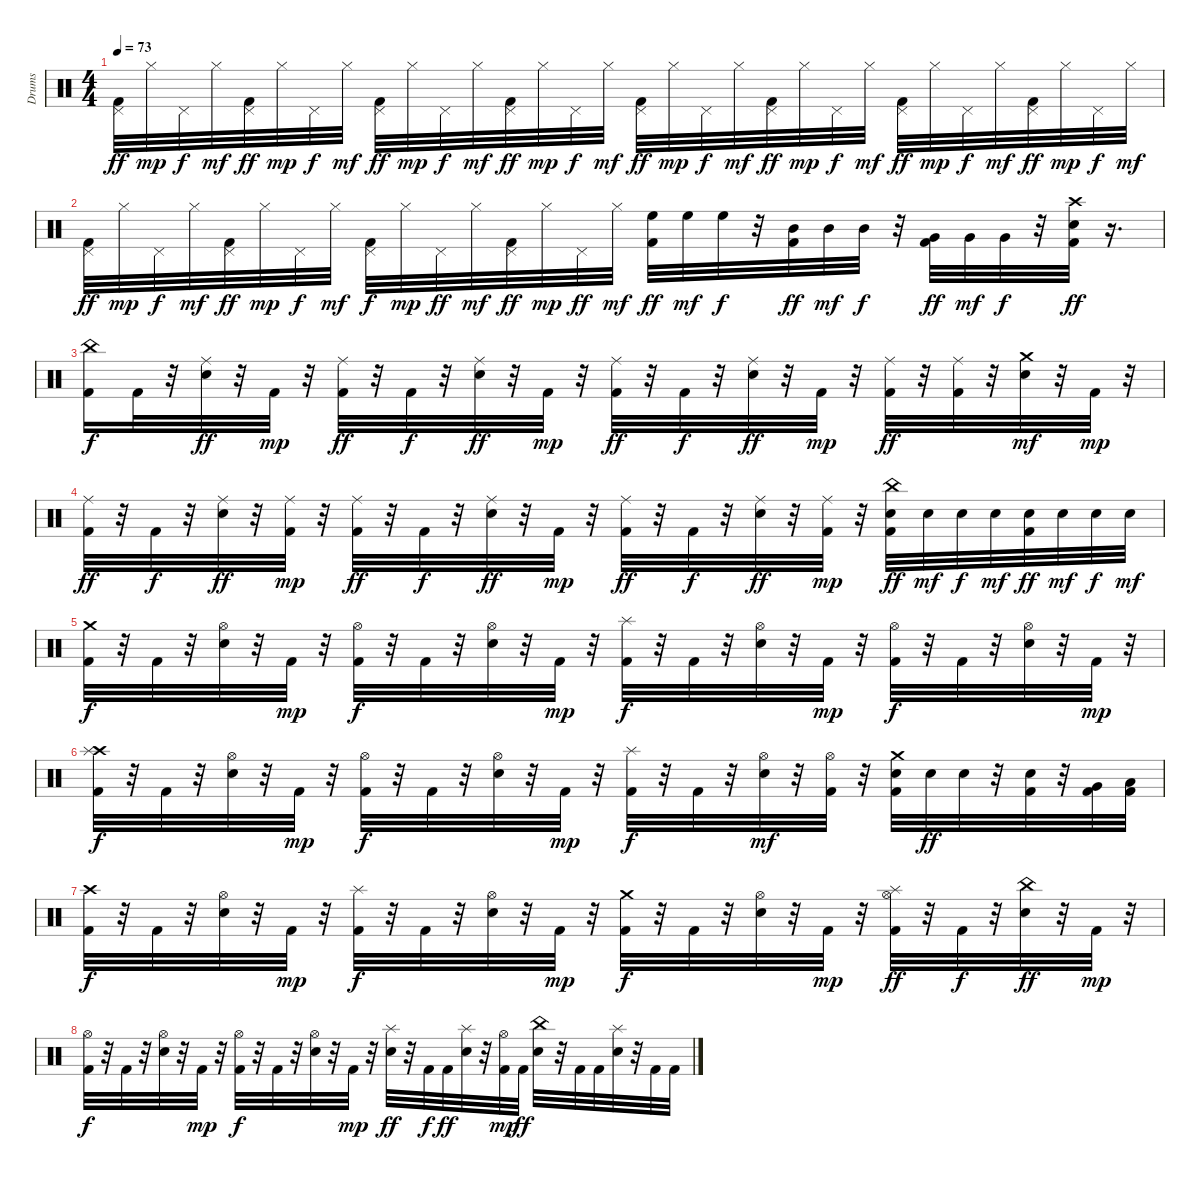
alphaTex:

\track ("Drums" "Drums") {instrument percussion}
\staff {score}
\articulation defaults
\ts (4 4)
\tempo 73
\clef neutral
\ks c
("Pedal Hi-Hat (hit)" "Kick (hit) 2").32{dy ff} "Hi-Hat (closed)".32{dy mp} "Pedal Hi-Hat (hit)".32{dy f} "Hi-Hat (closed)".32{dy mf} ("Pedal Hi-Hat (hit)" "Kick (hit) 2").32{dy ff} "Hi-Hat (closed)".32{dy mp} "Pedal Hi-Hat (hit)".32{dy f} "Hi-Hat (closed)".32{dy mf} ("Pedal Hi-Hat (hit)" "Kick (hit) 2").32{dy ff} "Hi-Hat (closed)".32{dy mp} "Pedal Hi-Hat (hit)".32{dy f} "Hi-Hat (closed)".32{dy mf} ("Pedal Hi-Hat (hit)" "Kick (hit) 2").32{dy ff} "Hi-Hat (closed)".32{dy mp} "Pedal Hi-Hat (hit)".32{dy f} "Hi-Hat (closed)".32{dy mf} ("Pedal Hi-Hat (hit)" "Kick (hit) 2").32{dy ff} "Hi-Hat (closed)".32{dy mp} "Pedal Hi-Hat (hit)".32{dy f} "Hi-Hat (closed)".32{dy mf} ("Pedal Hi-Hat (hit)" "Kick (hit) 2").32{dy ff} "Hi-Hat (closed)".32{dy mp} "Pedal Hi-Hat (hit)".32{dy f} "Hi-Hat (closed)".32{dy mf} ("Kick (hit) 2" "Pedal Hi-Hat (hit)").32{dy ff} "Hi-Hat (closed)".32{dy mp} "Pedal Hi-Hat (hit)".32{dy f} "Hi-Hat (closed)".32{dy mf} ("Pedal Hi-Hat (hit)" "Kick (hit) 2").32{dy ff} "Hi-Hat (closed)".32{dy mp} "Pedal Hi-Hat (hit)".32{dy f} "Hi-Hat (closed)".32{dy mf} |
("Kick (hit) 2" "Pedal Hi-Hat (hit)").32{dy ff} "Hi-Hat (closed)".32{dy mp} "Pedal Hi-Hat (hit)".32{dy f} "Hi-Hat (closed)".32{dy mf} ("Pedal Hi-Hat (hit)" "Kick (hit) 2").32{dy ff} "Hi-Hat (closed)".32{dy mp} "Pedal Hi-Hat (hit)".32{dy f} "Hi-Hat (closed)".32{dy mf} ("Pedal Hi-Hat (hit)" "Kick (hit) 2").32{dy f} "Hi-Hat (closed)".32{dy mp} "Pedal Hi-Hat (hit)".32{dy ff} "Hi-Hat (closed)".32{dy mf} ("Pedal Hi-Hat (hit)" "Kick (hit) 2").32{dy ff} "Hi-Hat (closed)".32{dy mp} "Pedal Hi-Hat (hit)".32{dy ff} "Hi-Hat (closed)".32{dy mf} ("High Floor Tom (hit)" "Kick (hit) 2").32{dy ff} "High Floor Tom (hit)".32{dy mf} "High Floor Tom (hit)".32{dy f} r.32 ("Mid Tom (hit)" "Kick (hit) 2").32{dy ff} "Mid Tom (hit)".32{dy mf} "Mid Tom (hit)".32{dy f} r.32 ("Very Low Tom (hit)" "Kick (hit) 2").32{dy ff} "Very Low Tom (hit)".32{dy mf} "Very Low Tom (hit)".32{dy f} r.32 ("Snare (hit) 2" "Kick (hit) 2" "Crash high (hit)").32{dy ff} r.16{d} |
("China (hit)" "Kick (hit) 2").16{dy f} "Kick (hit) 2".32 r.32 ("Ride (middle)" "Snare (hit) 2").32{dy ff} r.32 "Kick (hit) 2".32{dy mp} r.32 ("Ride (middle)" "Kick (hit) 2").32{dy ff} r.32 "Kick (hit) 2".32{dy f} r.32 ("Ride (middle)" "Snare (hit) 2").32{dy ff} r.32 "Kick (hit) 2".32{dy mp} r.32 ("Ride (middle)" "Kick (hit) 2").32{dy ff} r.32 "Kick (hit) 2".32{dy f} r.32 ("Ride (middle)" "Snare (hit) 2").32{dy ff} r.32 "Kick (hit) 2".32{dy mp} r.32 ("Ride (middle)" "Kick (hit) 2").32{dy ff} r.32 ("Ride (middle)" "Kick (hit) 2").32 r.32 ("Crash medium (hit)" "Snare (hit) 2").32{dy mf} r.32 "Kick (hit) 2".32{dy mp} r.32 |
("Ride (middle)" "Kick (hit) 2").32{dy ff} r.32 "Kick (hit) 2".32{dy f} r.32 ("Ride (middle)" "Snare (hit) 2").32{dy ff} r.32 ("Ride (middle)" "Kick (hit) 2").32{dy mp} r.32 ("Ride (middle)" "Kick (hit) 2").32{dy ff} r.32 "Kick (hit) 2".32{dy f} r.32 ("Ride (middle)" "Snare (hit) 2").32{dy ff} r.32 "Kick (hit) 2".32{dy mp} r.32 ("Ride (middle)" "Kick (hit) 2").32{dy ff} r.32 "Kick (hit) 2".32{dy f} r.32 ("Ride (middle)" "Snare (hit) 2").32{dy ff} r.32 ("Ride (middle)" "Kick (hit) 2").32{dy mp} r.32 ("China (hit)" "Kick (hit) 2" "Snare (hit) 2").32{dy ff} "Snare (hit) 2".32{dy mf} "Snare (hit) 2".32{dy f} "Snare (hit) 2".32{dy mf} ("Kick (hit) 2" "Snare (hit) 2").32{dy ff} "Snare (hit) 2".32{dy mf} "Snare (hit) 2".32{dy f} "Snare (hit) 2".32{dy mf} |
("Crash medium (hit)" "Kick (hit) 2").32{dy f} r.32 "Kick (hit) 2".32 r.32 ("Hi-Hat (open)" "Snare (hit) 2").32 r.32 "Kick (hit) 2".32{dy mp} r.32 ("Hi-Hat (open)" "Kick (hit) 2").32{dy f} r.32 "Kick (hit) 2".32 r.32 ("Hi-Hat (open)" "Snare (hit) 2").32 r.32 "Kick (hit) 2".32{dy mp} r.32 ("Splash (hit)" "Kick (hit) 2").32{dy f} r.32 "Kick (hit) 2".32 r.32 ("Hi-Hat (open)" "Snare (hit) 2").32 r.32 "Kick (hit) 2".32{dy mp} r.32 ("Hi-Hat (open)" "Kick (hit) 2").32{dy f} r.32 "Kick (hit) 2".32 r.32 ("Hi-Hat (open)" "Snare (hit) 2").32 r.32 "Kick (hit) 2".32{dy mp} r.32 |
("Crash high (hit)" "Splash (hit)" "Kick (hit) 2").32{dy f} r.32 "Kick (hit) 2".32 r.32 ("Snare (hit) 2" "Hi-Hat (open)").32 r.32 "Kick (hit) 2".32{dy mp} r.32 ("Kick (hit) 2" "Hi-Hat (open)").32{dy f} r.32 "Kick (hit) 2".32 r.32 ("Snare (hit) 2" "Hi-Hat (open)").32 r.32 "Kick (hit) 2".32{dy mp} r.32 ("Splash (hit)" "Kick (hit) 2").32{dy f} r.32 "Kick (hit) 2".32 r.32 ("Snare (hit) 2" "Hi-Hat (open)").32{dy mf} r.32 ("Kick (hit) 2" "Hi-Hat (open)").32 r.32 ("Snare (hit) 2" "Kick (hit) 2" "Crash medium (hit)").32 "Snare (hit) 2".32{dy ff} "Snare (hit) 2".32 r.32 ("Kick (hit) 2" "Snare (hit) 2").32 r.32 ("Very Low Tom (hit)" "Kick (hit) 2").32 ("Low Floor Tom (hit)" "Kick (hit) 2").32 |
("Crash high (hit)" "Kick (hit) 2").32{dy f} r.32 "Kick (hit) 2".32 r.32 ("Snare (hit) 2" "Hi-Hat (open)").32 r.32 "Kick (hit) 2".32{dy mp} r.32 ("Splash (hit)" "Kick (hit) 2").32{dy f} r.32 "Kick (hit) 2".32 r.32 ("Snare (hit) 2" "Hi-Hat (open)").32 r.32 "Kick (hit) 2".32{dy mp} r.32 ("Crash medium (hit)" "Kick (hit) 2").32{dy f} r.32 "Kick (hit) 2".32 r.32 ("Snare (hit) 2" "Hi-Hat (open)").32 r.32 "Kick (hit) 2".32{dy mp} r.32 ("Splash (hit)" "Kick (hit) 2" "Hi-Hat (open)").32{dy ff} r.32 "Kick (hit) 2".32{dy f} r.32 ("Snare (hit) 2" "China (hit)").32{dy ff} r.32 "Kick (hit) 2".32{dy mp} r.32 |
("Kick (hit) 2" "Hi-Hat (open)").32{dy f} r.32 "Kick (hit) 2".32 r.32 ("Hi-Hat (open)" "Snare (hit) 2").32 r.32 "Kick (hit) 2".32{dy mp} r.32 ("Hi-Hat (open)" "Kick (hit) 2").32{dy f} r.32 "Kick (hit) 2".32 r.32 ("Hi-Hat (open)" "Snare (hit) 2").32 r.32 "Kick (hit) 2".32{dy mp} r.32 ("Splash (hit)" "Snare (hit) 2").32{dy ff} r.32 "Kick (hit) 2".32{dy f} "Kick (hit) 2".32{dy ff} ("Splash (hit)" "Snare (hit) 2").32 r.32 ("Hi-Hat (open)" "Kick (hit) 2").32{dy mp} "Kick (hit) 2".32{dy ff} ("China (hit)" "Snare (hit) 2").32 r.32 "Kick (hit) 2".32 "Kick (hit) 2".32 ("Splash (hit)" "Snare (hit) 2").32 r.32 "Kick (hit) 2".32 "Kick (hit) 2".32
